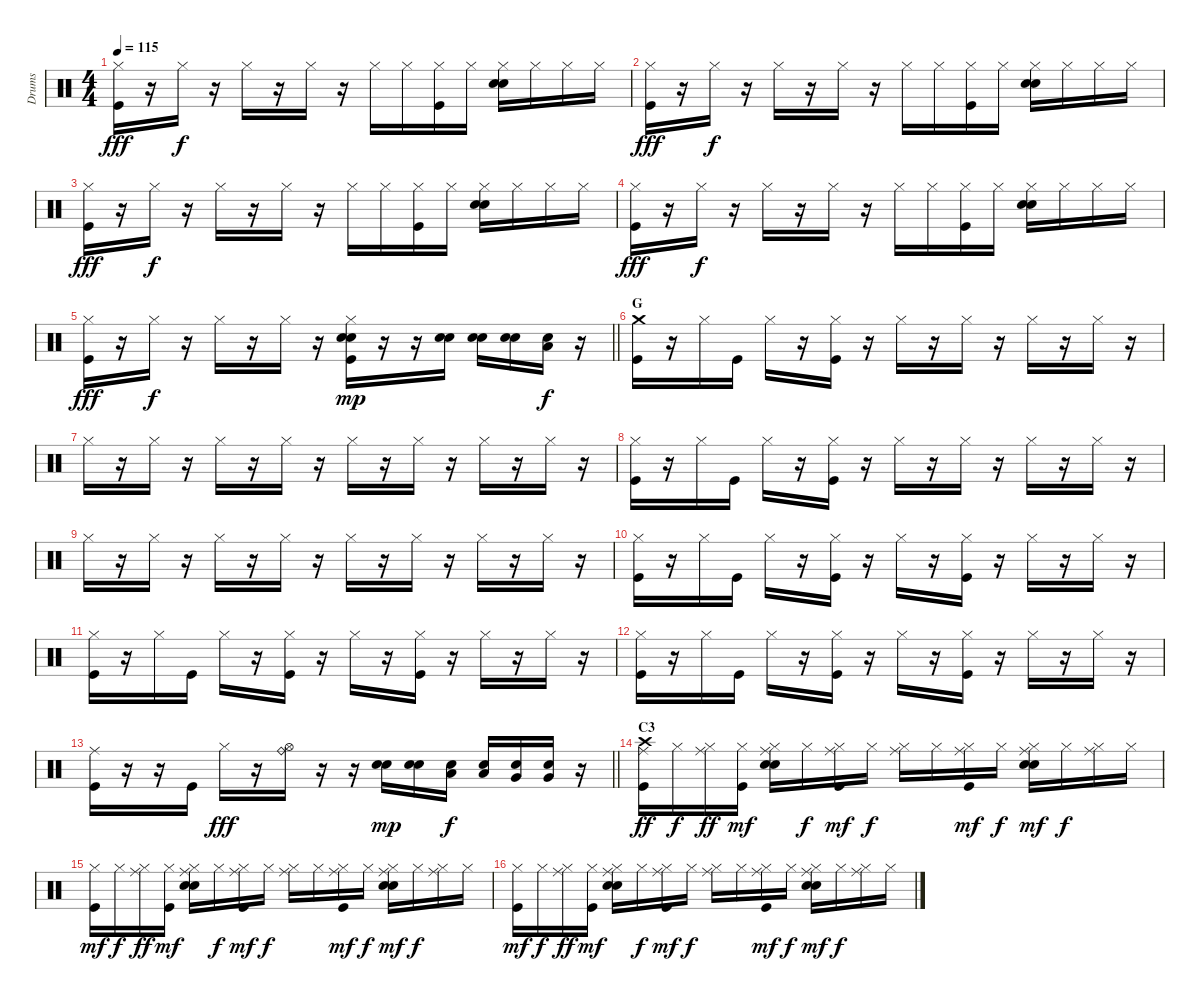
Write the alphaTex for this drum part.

\track ("Drums" "Drums") {instrument percussion}
\staff {score}
\articulation defaults
\ts (4 4)
\tempo 115
\clef neutral
\ks c
("Hi-Hat (closed)" "Kick (hit)").16{dy fff} r.16 "Hi-Hat (closed)".16{dy f} r.16 "Hi-Hat (closed)".16 r.16 "Hi-Hat (closed)".16 r.16 "Hi-Hat (closed)".16 "Hi-Hat (closed)".16 ("Hi-Hat (closed)" "Kick (hit)").16 "Hi-Hat (closed)".16 ("Hi-Hat (closed)" "Snare (hit) 2" "Electric Snare (hit)").16 "Hi-Hat (closed)".16 "Hi-Hat (closed)".16 "Hi-Hat (closed)".16 |
("Hi-Hat (closed)" "Kick (hit)").16{dy fff} r.16 "Hi-Hat (closed)".16{dy f} r.16 "Hi-Hat (closed)".16 r.16 "Hi-Hat (closed)".16 r.16 "Hi-Hat (closed)".16 "Hi-Hat (closed)".16 ("Hi-Hat (closed)" "Kick (hit)").16 "Hi-Hat (closed)".16 ("Hi-Hat (closed)" "Snare (hit) 2" "Electric Snare (hit)").16 "Hi-Hat (closed)".16 "Hi-Hat (closed)".16 "Hi-Hat (closed)".16 |
("Hi-Hat (closed)" "Kick (hit)").16{dy fff} r.16 "Hi-Hat (closed)".16{dy f} r.16 "Hi-Hat (closed)".16 r.16 "Hi-Hat (closed)".16 r.16 "Hi-Hat (closed)".16 "Hi-Hat (closed)".16 ("Hi-Hat (closed)" "Kick (hit)").16 "Hi-Hat (closed)".16 ("Hi-Hat (closed)" "Snare (hit) 2" "Electric Snare (hit)").16 "Hi-Hat (closed)".16 "Hi-Hat (closed)".16 "Hi-Hat (closed)".16 |
("Hi-Hat (closed)" "Kick (hit)").16{dy fff} r.16 "Hi-Hat (closed)".16{dy f} r.16 "Hi-Hat (closed)".16 r.16 "Hi-Hat (closed)".16 r.16 "Hi-Hat (closed)".16 "Hi-Hat (closed)".16 ("Hi-Hat (closed)" "Kick (hit)").16 "Hi-Hat (closed)".16 ("Hi-Hat (closed)" "Snare (hit) 2" "Electric Snare (hit)").16 "Hi-Hat (closed)".16 "Hi-Hat (closed)".16 "Hi-Hat (closed)".16 |
\barLineRight lightlight
("Hi-Hat (closed)" "Kick (hit)").16{dy fff} r.16 "Hi-Hat (closed)".16{dy f} r.16 "Hi-Hat (closed)".16 r.16 "Hi-Hat (closed)".16 r.16 ("Hi-Hat (closed)" "Snare (hit) 2" "Electric Snare (hit)" "Kick (hit)").16{dy mp} r.16 r.16 ("Snare (hit) 2" "Electric Snare (hit)").16 ("Snare (hit) 2" "Electric Snare (hit)").16 ("Snare (hit) 2" "Electric Snare (hit)").16 ("Low Tom (hit)" "Electric Snare (hit)").16{dy f} r.16 |
\section ("" "G")
("Crash medium (hit)" "Kick (hit)").16 r.16 "Hi-Hat (closed)".16 "Kick (hit)".16 "Hi-Hat (closed)".16 r.16 ("Hi-Hat (closed)" "Kick (hit)").16 r.16 "Hi-Hat (closed)".16 r.16 "Hi-Hat (closed)".16 r.16 "Hi-Hat (closed)".16 r.16 "Hi-Hat (closed)".16 r.16 |
"Hi-Hat (closed)".16 r.16 "Hi-Hat (closed)".16 r.16 "Hi-Hat (closed)".16 r.16 "Hi-Hat (closed)".16 r.16 "Hi-Hat (closed)".16 r.16 "Hi-Hat (closed)".16 r.16 "Hi-Hat (closed)".16 r.16 "Hi-Hat (closed)".16 r.16 |
("Hi-Hat (closed)" "Kick (hit)").16 r.16 "Hi-Hat (closed)".16 "Kick (hit)".16 "Hi-Hat (closed)".16 r.16 ("Hi-Hat (closed)" "Kick (hit)").16 r.16 "Hi-Hat (closed)".16 r.16 "Hi-Hat (closed)".16 r.16 "Hi-Hat (closed)".16 r.16 "Hi-Hat (closed)".16 r.16 |
"Hi-Hat (closed)".16 r.16 "Hi-Hat (closed)".16 r.16 "Hi-Hat (closed)".16 r.16 "Hi-Hat (closed)".16 r.16 "Hi-Hat (closed)".16 r.16 "Hi-Hat (closed)".16 r.16 "Hi-Hat (closed)".16 r.16 "Hi-Hat (closed)".16 r.16 |
("Hi-Hat (closed)" "Kick (hit)").16 r.16 "Hi-Hat (closed)".16 "Kick (hit)".16 "Hi-Hat (closed)".16 r.16 ("Hi-Hat (closed)" "Kick (hit)").16 r.16 "Hi-Hat (closed)".16 r.16 ("Hi-Hat (closed)" "Kick (hit)").16 r.16 "Hi-Hat (closed)".16 r.16 "Hi-Hat (closed)".16 r.16 |
("Hi-Hat (closed)" "Kick (hit)").16 r.16 "Hi-Hat (closed)".16 "Kick (hit)".16 "Hi-Hat (closed)".16 r.16 ("Hi-Hat (closed)" "Kick (hit)").16 r.16 "Hi-Hat (closed)".16 r.16 ("Hi-Hat (closed)" "Kick (hit)").16 r.16 "Hi-Hat (closed)".16 r.16 "Hi-Hat (closed)".16 r.16 |
("Hi-Hat (closed)" "Kick (hit)").16 r.16 "Hi-Hat (closed)".16 "Kick (hit)".16 "Hi-Hat (closed)".16 r.16 ("Hi-Hat (closed)" "Kick (hit)").16 r.16 "Hi-Hat (closed)".16 r.16 ("Hi-Hat (closed)" "Kick (hit)").16 r.16 "Hi-Hat (closed)".16 r.16 "Hi-Hat (closed)".16 r.16 |
\barLineRight lightlight
("Ride (middle)" "Kick (hit)").16 r.16 r.16 "Kick (hit)".16 "Hi-Hat (closed)".16{dy fff} r.16 ("Ride (bell)" "Hi-Hat (open)").16 r.16 r.16 ("Electric Snare (hit)" "Snare (hit) 2").16{dy mp} ("Electric Snare (hit)" "Snare (hit) 2").16 ("Electric Snare (hit)" "Low Tom (hit)").16{dy f} ("Electric Snare (hit)" "Low Tom (hit)").16 ("Electric Snare (hit)" "Very Low Tom (hit)").16 ("Electric Snare (hit)" "Very Low Tom (hit)").16 r.16 |
\section ("" "C3")
("Crash high (hit)" "Ride (middle)" "Kick (hit)").16{dy ff} "Hi-Hat (closed)".16{dy f} ("Hi-Hat (closed)" "Ride (middle)").16{dy ff} ("Hi-Hat (closed)" "Kick (hit)").16{dy mf} ("Hi-Hat (closed)" "Ride (middle)" "Electric Snare (hit)" "Snare (hit) 2").16 "Hi-Hat (closed)".16{dy f} ("Hi-Hat (closed)" "Ride (middle)" "Kick (hit)").16{dy mf} "Hi-Hat (closed)".16{dy f} ("Hi-Hat (closed)" "Ride (middle)").16 "Hi-Hat (closed)".16 ("Hi-Hat (closed)" "Ride (middle)" "Kick (hit)").16{dy mf} "Hi-Hat (closed)".16{dy f} ("Hi-Hat (closed)" "Ride (middle)" "Electric Snare (hit)" "Snare (hit) 2").16{dy mf} "Hi-Hat (closed)".16{dy f} ("Hi-Hat (closed)" "Ride (middle)").16 "Hi-Hat (closed)".16 |
("Hi-Hat (closed)" "Kick (hit)").16{dy mf} "Hi-Hat (closed)".16{dy f} ("Hi-Hat (closed)" "Ride (middle)").16{dy ff} ("Hi-Hat (closed)" "Kick (hit)").16{dy mf} ("Hi-Hat (closed)" "Ride (middle)" "Electric Snare (hit)" "Snare (hit) 2").16 "Hi-Hat (closed)".16{dy f} ("Hi-Hat (closed)" "Ride (middle)" "Kick (hit)").16{dy mf} "Hi-Hat (closed)".16{dy f} ("Hi-Hat (closed)" "Ride (middle)").16 "Hi-Hat (closed)".16 ("Hi-Hat (closed)" "Ride (middle)" "Kick (hit)").16{dy mf} "Hi-Hat (closed)".16{dy f} ("Hi-Hat (closed)" "Ride (middle)" "Electric Snare (hit)" "Snare (hit) 2").16{dy mf} "Hi-Hat (closed)".16{dy f} ("Hi-Hat (closed)" "Ride (middle)").16 "Hi-Hat (closed)".16 |
("Hi-Hat (closed)" "Kick (hit)").16{dy mf} "Hi-Hat (closed)".16{dy f} ("Hi-Hat (closed)" "Ride (middle)").16{dy ff} ("Hi-Hat (closed)" "Kick (hit)").16{dy mf} ("Hi-Hat (closed)" "Ride (middle)" "Electric Snare (hit)" "Snare (hit) 2").16 "Hi-Hat (closed)".16{dy f} ("Hi-Hat (closed)" "Ride (middle)" "Kick (hit)").16{dy mf} "Hi-Hat (closed)".16{dy f} ("Hi-Hat (closed)" "Ride (middle)").16 "Hi-Hat (closed)".16 ("Hi-Hat (closed)" "Ride (middle)" "Kick (hit)").16{dy mf} "Hi-Hat (closed)".16{dy f} ("Hi-Hat (closed)" "Ride (middle)" "Electric Snare (hit)" "Snare (hit) 2").16{dy mf} "Hi-Hat (closed)".16{dy f} ("Hi-Hat (closed)" "Ride (middle)").16 "Hi-Hat (closed)".16
